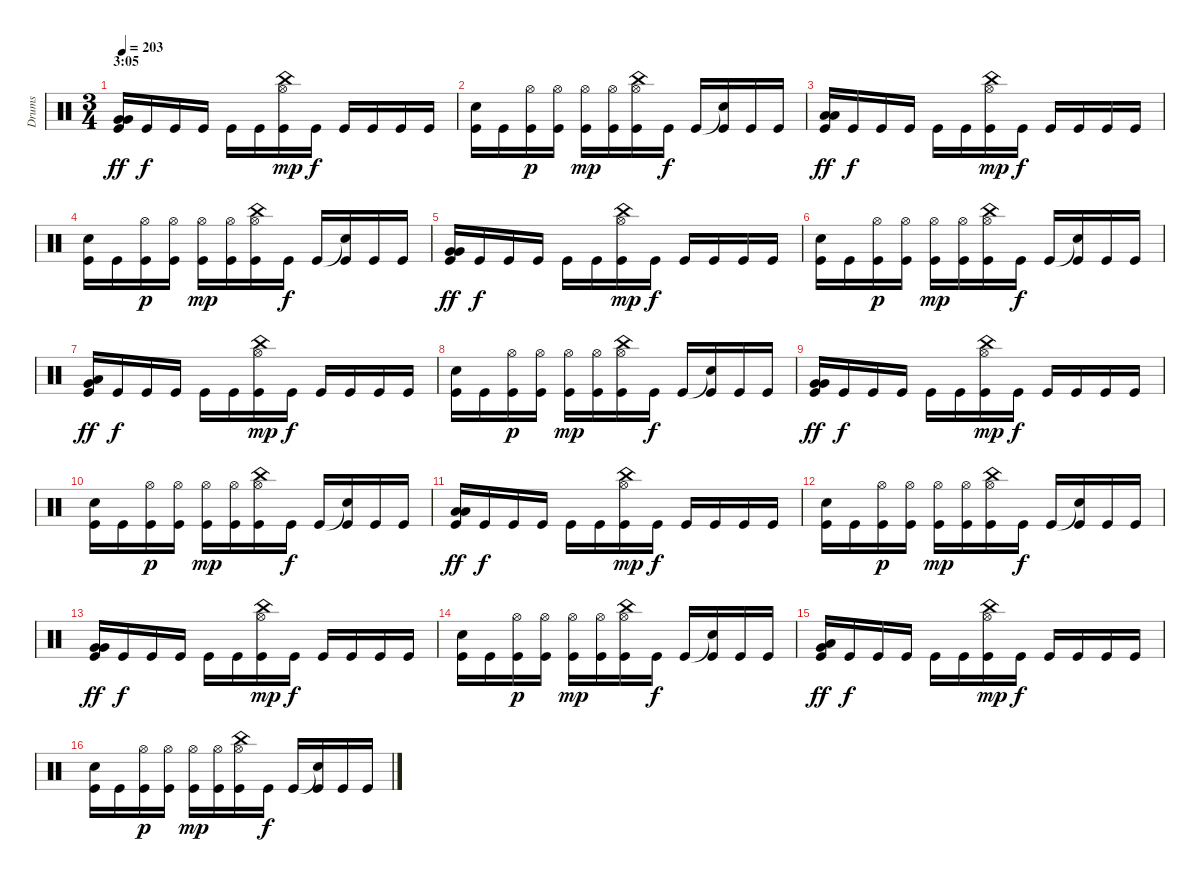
\track ("Drums" "Drums") {instrument percussion}
\staff {score}
\articulation defaults
\ts (3 4)
\section ("" "3:05")
\tempo 203
\clef neutral
\ks c
("Very Low Tom (hit)" "Very Low Tom (hit)" "Kick (hit)").16{dy ff} "Kick (hit)".16{dy f} "Kick (hit)".16 "Kick (hit)".16 "Kick (hit)".16 "Kick (hit)".16 ("China (hit)" "Hi-Hat (open)" "Kick (hit)").16{dy mp} "Kick (hit)".16{dy f} "Kick (hit)".16 "Kick (hit)".16 "Kick (hit)".16 "Kick (hit)".16 |
("Electric Snare (hit)" "Kick (hit)").16 "Kick (hit)".16 ("Hi-Hat (open)" "Kick (hit)").16{dy p} ("Hi-Hat (open)" "Kick (hit)").16 ("Hi-Hat (open)" "Kick (hit)").16{dy mp} ("Hi-Hat (open)" "Kick (hit)").16 ("China (hit)" "Hi-Hat (open)" "Kick (hit)").16 "Kick (hit)".16{dy f} "Kick (hit)".16 ("Snare (hit)"{t} "Kick (hit)").16 "Kick (hit)".16 "Kick (hit)".16 |
("Low Floor Tom (hit)" "Low Floor Tom (hit)" "Kick (hit)").16{dy ff} "Kick (hit)".16{dy f} "Kick (hit)".16 "Kick (hit)".16 "Kick (hit)".16 "Kick (hit)".16 ("China (hit)" "Hi-Hat (open)" "Kick (hit)").16{dy mp} "Kick (hit)".16{dy f} "Kick (hit)".16 "Kick (hit)".16 "Kick (hit)".16 "Kick (hit)".16 |
("Electric Snare (hit)" "Kick (hit)").16 "Kick (hit)".16 ("Hi-Hat (open)" "Kick (hit)").16{dy p} ("Hi-Hat (open)" "Kick (hit)").16 ("Hi-Hat (open)" "Kick (hit)").16{dy mp} ("Hi-Hat (open)" "Kick (hit)").16 ("China (hit)" "Hi-Hat (open)" "Kick (hit)").16 "Kick (hit)".16{dy f} "Kick (hit)".16 ("Snare (hit)"{t} "Kick (hit)").16 "Kick (hit)".16 "Kick (hit)".16 |
("Very Low Tom (hit)" "Very Low Tom (hit)" "Kick (hit)").16{dy ff} "Kick (hit)".16{dy f} "Kick (hit)".16 "Kick (hit)".16 "Kick (hit)".16 "Kick (hit)".16 ("China (hit)" "Hi-Hat (open)" "Kick (hit)").16{dy mp} "Kick (hit)".16{dy f} "Kick (hit)".16 "Kick (hit)".16 "Kick (hit)".16 "Kick (hit)".16 |
("Electric Snare (hit)" "Kick (hit)").16 "Kick (hit)".16 ("Hi-Hat (open)" "Kick (hit)").16{dy p} ("Hi-Hat (open)" "Kick (hit)").16 ("Hi-Hat (open)" "Kick (hit)").16{dy mp} ("Hi-Hat (open)" "Kick (hit)").16 ("China (hit)" "Hi-Hat (open)" "Kick (hit)").16 "Kick (hit)".16{dy f} "Kick (hit)".16 ("Snare (hit)"{t} "Kick (hit)").16 "Kick (hit)".16 "Kick (hit)".16 |
("Very Low Tom (hit)" "Low Floor Tom (hit)" "Kick (hit)").16{dy ff} "Kick (hit)".16{dy f} "Kick (hit)".16 "Kick (hit)".16 "Kick (hit)".16 "Kick (hit)".16 ("China (hit)" "Hi-Hat (open)" "Kick (hit)").16{dy mp} "Kick (hit)".16{dy f} "Kick (hit)".16 "Kick (hit)".16 "Kick (hit)".16 "Kick (hit)".16 |
("Electric Snare (hit)" "Kick (hit)").16 "Kick (hit)".16 ("Hi-Hat (open)" "Kick (hit)").16{dy p} ("Hi-Hat (open)" "Kick (hit)").16 ("Hi-Hat (open)" "Kick (hit)").16{dy mp} ("Hi-Hat (open)" "Kick (hit)").16 ("China (hit)" "Hi-Hat (open)" "Kick (hit)").16 "Kick (hit)".16{dy f} "Kick (hit)".16 ("Snare (hit)"{t} "Kick (hit)").16 "Kick (hit)".16 "Kick (hit)".16 |
("Very Low Tom (hit)" "Very Low Tom (hit)" "Kick (hit)").16{dy ff} "Kick (hit)".16{dy f} "Kick (hit)".16 "Kick (hit)".16 "Kick (hit)".16 "Kick (hit)".16 ("China (hit)" "Hi-Hat (open)" "Kick (hit)").16{dy mp} "Kick (hit)".16{dy f} "Kick (hit)".16 "Kick (hit)".16 "Kick (hit)".16 "Kick (hit)".16 |
("Electric Snare (hit)" "Kick (hit)").16 "Kick (hit)".16 ("Hi-Hat (open)" "Kick (hit)").16{dy p} ("Hi-Hat (open)" "Kick (hit)").16 ("Hi-Hat (open)" "Kick (hit)").16{dy mp} ("Hi-Hat (open)" "Kick (hit)").16 ("China (hit)" "Hi-Hat (open)" "Kick (hit)").16 "Kick (hit)".16{dy f} "Kick (hit)".16 ("Snare (hit)"{t} "Kick (hit)").16 "Kick (hit)".16 "Kick (hit)".16 |
("Low Floor Tom (hit)" "Low Floor Tom (hit)" "Kick (hit)").16{dy ff} "Kick (hit)".16{dy f} "Kick (hit)".16 "Kick (hit)".16 "Kick (hit)".16 "Kick (hit)".16 ("China (hit)" "Hi-Hat (open)" "Kick (hit)").16{dy mp} "Kick (hit)".16{dy f} "Kick (hit)".16 "Kick (hit)".16 "Kick (hit)".16 "Kick (hit)".16 |
("Electric Snare (hit)" "Kick (hit)").16 "Kick (hit)".16 ("Hi-Hat (open)" "Kick (hit)").16{dy p} ("Hi-Hat (open)" "Kick (hit)").16 ("Hi-Hat (open)" "Kick (hit)").16{dy mp} ("Hi-Hat (open)" "Kick (hit)").16 ("China (hit)" "Hi-Hat (open)" "Kick (hit)").16 "Kick (hit)".16{dy f} "Kick (hit)".16 ("Snare (hit)"{t} "Kick (hit)").16 "Kick (hit)".16 "Kick (hit)".16 |
("Very Low Tom (hit)" "Very Low Tom (hit)" "Kick (hit)").16{dy ff} "Kick (hit)".16{dy f} "Kick (hit)".16 "Kick (hit)".16 "Kick (hit)".16 "Kick (hit)".16 ("China (hit)" "Hi-Hat (open)" "Kick (hit)").16{dy mp} "Kick (hit)".16{dy f} "Kick (hit)".16 "Kick (hit)".16 "Kick (hit)".16 "Kick (hit)".16 |
("Electric Snare (hit)" "Kick (hit)").16 "Kick (hit)".16 ("Hi-Hat (open)" "Kick (hit)").16{dy p} ("Hi-Hat (open)" "Kick (hit)").16 ("Hi-Hat (open)" "Kick (hit)").16{dy mp} ("Hi-Hat (open)" "Kick (hit)").16 ("China (hit)" "Hi-Hat (open)" "Kick (hit)").16 "Kick (hit)".16{dy f} "Kick (hit)".16 ("Snare (hit)"{t} "Kick (hit)").16 "Kick (hit)".16 "Kick (hit)".16 |
("Very Low Tom (hit)" "Low Floor Tom (hit)" "Kick (hit)").16{dy ff} "Kick (hit)".16{dy f} "Kick (hit)".16 "Kick (hit)".16 "Kick (hit)".16 "Kick (hit)".16 ("China (hit)" "Hi-Hat (open)" "Kick (hit)").16{dy mp} "Kick (hit)".16{dy f} "Kick (hit)".16 "Kick (hit)".16 "Kick (hit)".16 "Kick (hit)".16 |
("Electric Snare (hit)" "Kick (hit)").16 "Kick (hit)".16 ("Hi-Hat (open)" "Kick (hit)").16{dy p} ("Hi-Hat (open)" "Kick (hit)").16 ("Hi-Hat (open)" "Kick (hit)").16{dy mp} ("Hi-Hat (open)" "Kick (hit)").16 ("China (hit)" "Hi-Hat (open)" "Kick (hit)").16 "Kick (hit)".16{dy f} "Kick (hit)".16 ("Snare (hit)"{t} "Kick (hit)").16 "Kick (hit)".16 "Kick (hit)".16
